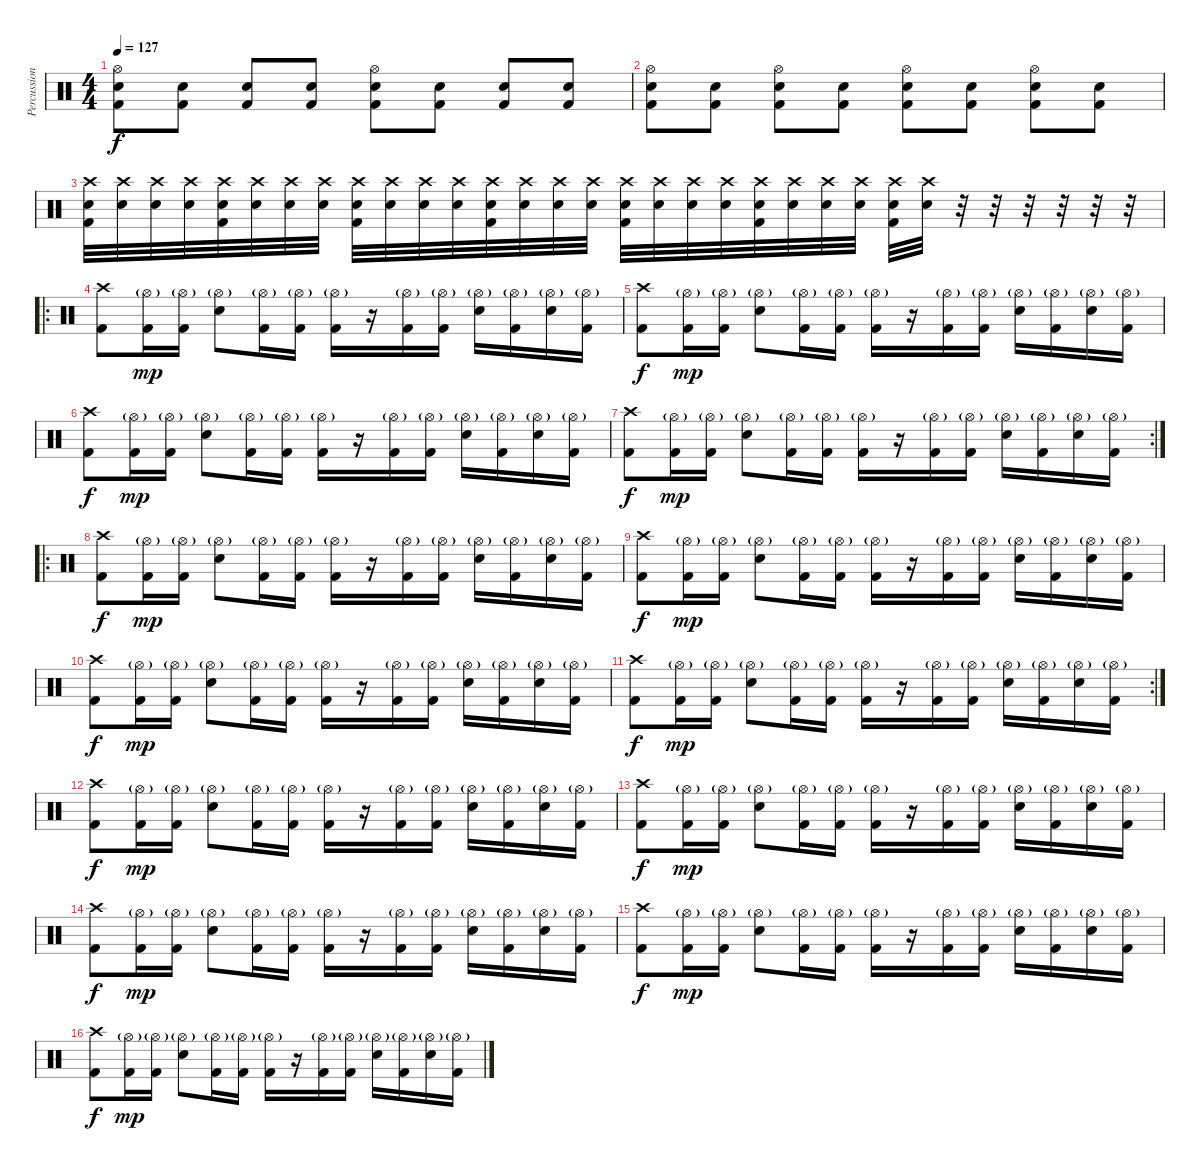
\track ("Percussions" "Percussion") {instrument percussion}
\staff {score}
\articulation defaults
\ts (4 4)
\tempo 127
\clef neutral
\ks c
("Hi-Hat (open)" "Kick (hit) 2" "Electric Snare (hit)").8{dy f} ("Kick (hit) 2" "Electric Snare (hit)").8 ("Kick (hit) 2" "Electric Snare (hit)").8 ("Kick (hit) 2" "Electric Snare (hit)").8 ("Hi-Hat (open)" "Kick (hit) 2" "Electric Snare (hit)").8 ("Kick (hit) 2" "Electric Snare (hit)").8 ("Kick (hit) 2" "Electric Snare (hit)").8 ("Kick (hit) 2" "Electric Snare (hit)").8 |
("Hi-Hat (open)" "Kick (hit) 2" "Electric Snare (hit)").8 ("Kick (hit) 2" "Electric Snare (hit)").8 ("Hi-Hat (open)" "Kick (hit) 2" "Electric Snare (hit)").8 ("Kick (hit) 2" "Electric Snare (hit)").8 ("Hi-Hat (open)" "Kick (hit) 2" "Electric Snare (hit)").8 ("Kick (hit) 2" "Electric Snare (hit)").8 ("Hi-Hat (open)" "Kick (hit) 2" "Electric Snare (hit)").8 ("Kick (hit) 2" "Electric Snare (hit)").8 |
("Crash high (hit)" "Kick (hit) 2" "Electric Snare (hit)").32 ("Crash high (hit)" "Electric Snare (hit)").32 ("Crash high (hit)" "Electric Snare (hit)").32 ("Crash high (hit)" "Electric Snare (hit)").32 ("Crash high (hit)" "Kick (hit) 2" "Electric Snare (hit)").32 ("Crash high (hit)" "Electric Snare (hit)").32 ("Crash high (hit)" "Electric Snare (hit)").32 ("Crash high (hit)" "Electric Snare (hit)").32 ("Crash high (hit)" "Kick (hit) 2" "Electric Snare (hit)").32 ("Crash high (hit)" "Electric Snare (hit)").32 ("Crash high (hit)" "Electric Snare (hit)").32 ("Crash high (hit)" "Electric Snare (hit)").32 ("Crash high (hit)" "Kick (hit) 2" "Electric Snare (hit)").32 ("Crash high (hit)" "Electric Snare (hit)").32 ("Crash high (hit)" "Electric Snare (hit)").32 ("Crash high (hit)" "Electric Snare (hit)").32 ("Crash high (hit)" "Kick (hit) 2" "Electric Snare (hit)").32 ("Crash high (hit)" "Electric Snare (hit)").32 ("Crash high (hit)" "Electric Snare (hit)").32 ("Crash high (hit)" "Electric Snare (hit)").32 ("Crash high (hit)" "Kick (hit) 2" "Electric Snare (hit)").32 ("Crash high (hit)" "Electric Snare (hit)").32 ("Crash high (hit)" "Electric Snare (hit)").32 ("Crash high (hit)" "Electric Snare (hit)").32 ("Crash high (hit)" "Kick (hit) 2" "Electric Snare (hit)").32 ("Crash high (hit)" "Electric Snare (hit)").32 r.32 r.32 r.32 r.32 r.32 r.32 |
\ro
("Crash high (hit)" "Kick (hit) 2").8 ("Hi-Hat (open)"{g} "Kick (hit) 2").16{dy mp} ("Hi-Hat (open)"{g} "Kick (hit) 2").16 ("Hi-Hat (open)"{g} "Electric Snare (hit)").8 ("Hi-Hat (open)"{g} "Kick (hit) 2").16 ("Hi-Hat (open)"{g} "Kick (hit) 2").16 ("Hi-Hat (open)"{g} "Kick (hit) 2").16 r.16 ("Hi-Hat (open)"{g} "Kick (hit) 2").16 ("Hi-Hat (open)"{g} "Kick (hit) 2").16 ("Hi-Hat (open)"{g} "Electric Snare (hit)").16 ("Hi-Hat (open)"{g} "Kick (hit) 2").16 ("Hi-Hat (open)"{g} "Electric Snare (hit)").16 ("Hi-Hat (open)"{g} "Kick (hit) 2").16 |
("Crash high (hit)" "Kick (hit) 2").8{dy f} ("Hi-Hat (open)"{g} "Kick (hit) 2").16{dy mp} ("Hi-Hat (open)"{g} "Kick (hit) 2").16 ("Hi-Hat (open)"{g} "Electric Snare (hit)").8 ("Hi-Hat (open)"{g} "Kick (hit) 2").16 ("Hi-Hat (open)"{g} "Kick (hit) 2").16 ("Hi-Hat (open)"{g} "Kick (hit) 2").16 r.16 ("Hi-Hat (open)"{g} "Kick (hit) 2").16 ("Hi-Hat (open)"{g} "Kick (hit) 2").16 ("Hi-Hat (open)"{g} "Electric Snare (hit)").16 ("Hi-Hat (open)"{g} "Kick (hit) 2").16 ("Hi-Hat (open)"{g} "Electric Snare (hit)").16 ("Hi-Hat (open)"{g} "Kick (hit) 2").16 |
("Crash high (hit)" "Kick (hit) 2").8{dy f} ("Hi-Hat (open)"{g} "Kick (hit) 2").16{dy mp} ("Hi-Hat (open)"{g} "Kick (hit) 2").16 ("Hi-Hat (open)"{g} "Electric Snare (hit)").8 ("Hi-Hat (open)"{g} "Kick (hit) 2").16 ("Hi-Hat (open)"{g} "Kick (hit) 2").16 ("Hi-Hat (open)"{g} "Kick (hit) 2").16 r.16 ("Hi-Hat (open)"{g} "Kick (hit) 2").16 ("Hi-Hat (open)"{g} "Kick (hit) 2").16 ("Hi-Hat (open)"{g} "Electric Snare (hit)").16 ("Hi-Hat (open)"{g} "Kick (hit) 2").16 ("Hi-Hat (open)"{g} "Electric Snare (hit)").16 ("Hi-Hat (open)"{g} "Kick (hit) 2").16 |
\rc 2
("Crash high (hit)" "Kick (hit) 2").8{dy f} ("Hi-Hat (open)"{g} "Kick (hit) 2").16{dy mp} ("Hi-Hat (open)"{g} "Kick (hit) 2").16 ("Hi-Hat (open)"{g} "Electric Snare (hit)").8 ("Hi-Hat (open)"{g} "Kick (hit) 2").16 ("Hi-Hat (open)"{g} "Kick (hit) 2").16 ("Hi-Hat (open)"{g} "Kick (hit) 2").16 r.16 ("Hi-Hat (open)"{g} "Kick (hit) 2").16 ("Hi-Hat (open)"{g} "Kick (hit) 2").16 ("Hi-Hat (open)"{g} "Electric Snare (hit)").16 ("Hi-Hat (open)"{g} "Kick (hit) 2").16 ("Hi-Hat (open)"{g} "Electric Snare (hit)").16 ("Hi-Hat (open)"{g} "Kick (hit) 2").16 |
\ro
("Crash high (hit)" "Kick (hit) 2").8{dy f} ("Hi-Hat (open)"{g} "Kick (hit) 2").16{dy mp} ("Hi-Hat (open)"{g} "Kick (hit) 2").16 ("Hi-Hat (open)"{g} "Electric Snare (hit)").8 ("Hi-Hat (open)"{g} "Kick (hit) 2").16 ("Hi-Hat (open)"{g} "Kick (hit) 2").16 ("Hi-Hat (open)"{g} "Kick (hit) 2").16 r.16 ("Hi-Hat (open)"{g} "Kick (hit) 2").16 ("Hi-Hat (open)"{g} "Kick (hit) 2").16 ("Hi-Hat (open)"{g} "Electric Snare (hit)").16 ("Hi-Hat (open)"{g} "Kick (hit) 2").16 ("Hi-Hat (open)"{g} "Electric Snare (hit)").16 ("Hi-Hat (open)"{g} "Kick (hit) 2").16 |
("Crash high (hit)" "Kick (hit) 2").8{dy f} ("Hi-Hat (open)"{g} "Kick (hit) 2").16{dy mp} ("Hi-Hat (open)"{g} "Kick (hit) 2").16 ("Hi-Hat (open)"{g} "Electric Snare (hit)").8 ("Hi-Hat (open)"{g} "Kick (hit) 2").16 ("Hi-Hat (open)"{g} "Kick (hit) 2").16 ("Hi-Hat (open)"{g} "Kick (hit) 2").16 r.16 ("Hi-Hat (open)"{g} "Kick (hit) 2").16 ("Hi-Hat (open)"{g} "Kick (hit) 2").16 ("Hi-Hat (open)"{g} "Electric Snare (hit)").16 ("Hi-Hat (open)"{g} "Kick (hit) 2").16 ("Hi-Hat (open)"{g} "Electric Snare (hit)").16 ("Hi-Hat (open)"{g} "Kick (hit) 2").16 |
("Crash high (hit)" "Kick (hit) 2").8{dy f} ("Hi-Hat (open)"{g} "Kick (hit) 2").16{dy mp} ("Hi-Hat (open)"{g} "Kick (hit) 2").16 ("Hi-Hat (open)"{g} "Electric Snare (hit)").8 ("Hi-Hat (open)"{g} "Kick (hit) 2").16 ("Hi-Hat (open)"{g} "Kick (hit) 2").16 ("Hi-Hat (open)"{g} "Kick (hit) 2").16 r.16 ("Hi-Hat (open)"{g} "Kick (hit) 2").16 ("Hi-Hat (open)"{g} "Kick (hit) 2").16 ("Hi-Hat (open)"{g} "Electric Snare (hit)").16 ("Hi-Hat (open)"{g} "Kick (hit) 2").16 ("Hi-Hat (open)"{g} "Electric Snare (hit)").16 ("Hi-Hat (open)"{g} "Kick (hit) 2").16 |
\rc 2
("Crash high (hit)" "Kick (hit) 2").8{dy f} ("Hi-Hat (open)"{g} "Kick (hit) 2").16{dy mp} ("Hi-Hat (open)"{g} "Kick (hit) 2").16 ("Hi-Hat (open)"{g} "Electric Snare (hit)").8 ("Hi-Hat (open)"{g} "Kick (hit) 2").16 ("Hi-Hat (open)"{g} "Kick (hit) 2").16 ("Hi-Hat (open)"{g} "Kick (hit) 2").16 r.16 ("Hi-Hat (open)"{g} "Kick (hit) 2").16 ("Hi-Hat (open)"{g} "Kick (hit) 2").16 ("Hi-Hat (open)"{g} "Electric Snare (hit)").16 ("Hi-Hat (open)"{g} "Kick (hit) 2").16 ("Hi-Hat (open)"{g} "Electric Snare (hit)").16 ("Hi-Hat (open)"{g} "Kick (hit) 2").16 |
("Crash high (hit)" "Kick (hit) 2").8{dy f} ("Hi-Hat (open)"{g} "Kick (hit) 2").16{dy mp} ("Hi-Hat (open)"{g} "Kick (hit) 2").16 ("Hi-Hat (open)"{g} "Electric Snare (hit)").8 ("Hi-Hat (open)"{g} "Kick (hit) 2").16 ("Hi-Hat (open)"{g} "Kick (hit) 2").16 ("Hi-Hat (open)"{g} "Kick (hit) 2").16 r.16 ("Hi-Hat (open)"{g} "Kick (hit) 2").16 ("Hi-Hat (open)"{g} "Kick (hit) 2").16 ("Hi-Hat (open)"{g} "Electric Snare (hit)").16 ("Hi-Hat (open)"{g} "Kick (hit) 2").16 ("Hi-Hat (open)"{g} "Electric Snare (hit)").16 ("Hi-Hat (open)"{g} "Kick (hit) 2").16 |
("Crash high (hit)" "Kick (hit) 2").8{dy f} ("Hi-Hat (open)"{g} "Kick (hit) 2").16{dy mp} ("Hi-Hat (open)"{g} "Kick (hit) 2").16 ("Hi-Hat (open)"{g} "Electric Snare (hit)").8 ("Hi-Hat (open)"{g} "Kick (hit) 2").16 ("Hi-Hat (open)"{g} "Kick (hit) 2").16 ("Hi-Hat (open)"{g} "Kick (hit) 2").16 r.16 ("Hi-Hat (open)"{g} "Kick (hit) 2").16 ("Hi-Hat (open)"{g} "Kick (hit) 2").16 ("Hi-Hat (open)"{g} "Electric Snare (hit)").16 ("Hi-Hat (open)"{g} "Kick (hit) 2").16 ("Hi-Hat (open)"{g} "Electric Snare (hit)").16 ("Hi-Hat (open)"{g} "Kick (hit) 2").16 |
("Crash high (hit)" "Kick (hit) 2").8{dy f} ("Hi-Hat (open)"{g} "Kick (hit) 2").16{dy mp} ("Hi-Hat (open)"{g} "Kick (hit) 2").16 ("Hi-Hat (open)"{g} "Electric Snare (hit)").8 ("Hi-Hat (open)"{g} "Kick (hit) 2").16 ("Hi-Hat (open)"{g} "Kick (hit) 2").16 ("Hi-Hat (open)"{g} "Kick (hit) 2").16 r.16 ("Hi-Hat (open)"{g} "Kick (hit) 2").16 ("Hi-Hat (open)"{g} "Kick (hit) 2").16 ("Hi-Hat (open)"{g} "Electric Snare (hit)").16 ("Hi-Hat (open)"{g} "Kick (hit) 2").16 ("Hi-Hat (open)"{g} "Electric Snare (hit)").16 ("Hi-Hat (open)"{g} "Kick (hit) 2").16 |
("Crash high (hit)" "Kick (hit) 2").8{dy f} ("Hi-Hat (open)"{g} "Kick (hit) 2").16{dy mp} ("Hi-Hat (open)"{g} "Kick (hit) 2").16 ("Hi-Hat (open)"{g} "Electric Snare (hit)").8 ("Hi-Hat (open)"{g} "Kick (hit) 2").16 ("Hi-Hat (open)"{g} "Kick (hit) 2").16 ("Hi-Hat (open)"{g} "Kick (hit) 2").16 r.16 ("Hi-Hat (open)"{g} "Kick (hit) 2").16 ("Hi-Hat (open)"{g} "Kick (hit) 2").16 ("Hi-Hat (open)"{g} "Electric Snare (hit)").16 ("Hi-Hat (open)"{g} "Kick (hit) 2").16 ("Hi-Hat (open)"{g} "Electric Snare (hit)").16 ("Hi-Hat (open)"{g} "Kick (hit) 2").16 |
("Crash high (hit)" "Kick (hit) 2").8{dy f} ("Hi-Hat (open)"{g} "Kick (hit) 2").16{dy mp} ("Hi-Hat (open)"{g} "Kick (hit) 2").16 ("Hi-Hat (open)"{g} "Electric Snare (hit)").8 ("Hi-Hat (open)"{g} "Kick (hit) 2").16 ("Hi-Hat (open)"{g} "Kick (hit) 2").16 ("Hi-Hat (open)"{g} "Kick (hit) 2").16 r.16 ("Hi-Hat (open)"{g} "Kick (hit) 2").16 ("Hi-Hat (open)"{g} "Kick (hit) 2").16 ("Hi-Hat (open)"{g} "Electric Snare (hit)").16 ("Hi-Hat (open)"{g} "Kick (hit) 2").16 ("Hi-Hat (open)"{g} "Electric Snare (hit)").16 ("Hi-Hat (open)"{g} "Kick (hit) 2").16
